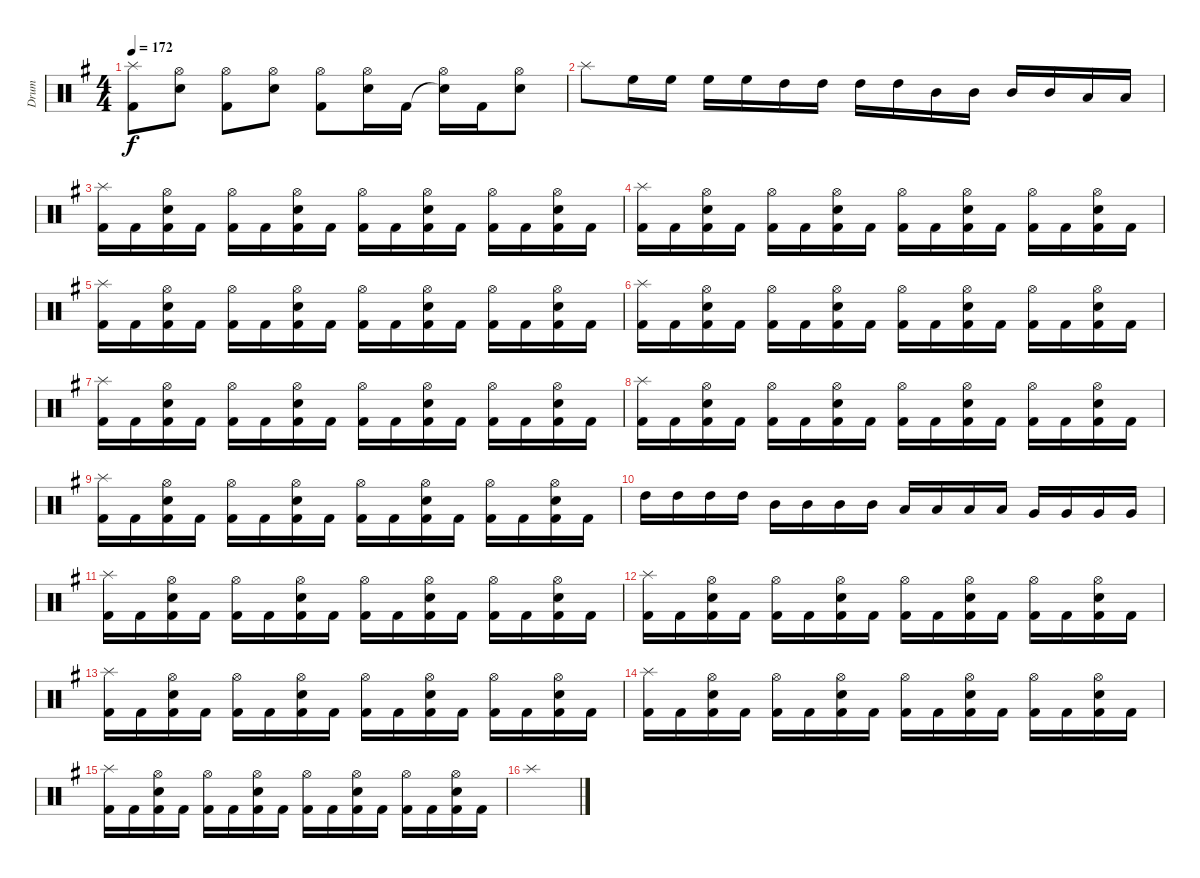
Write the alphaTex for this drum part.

\track ("Drum" "Drum") {instrument percussion}
\staff {score}
\articulation defaults
\ts (4 4)
\tempo 172
\clef neutral
\ks eminor
("Kick (hit) 2" "Splash (hit)").8{dy f} ("Electric Snare (hit)" "Hi-Hat (open)").8 ("Kick (hit) 2" "Hi-Hat (open)").8 ("Electric Snare (hit)" "Hi-Hat (open)").8 ("Kick (hit) 2" "Hi-Hat (open)").8 ("Electric Snare (hit)" "Hi-Hat (open)").16 "Kick (hit) 2".16 ("Snare (hit)"{t} "Hi-Hat (open)").16 "Kick (hit) 2".16 ("Electric Snare (hit)" "Hi-Hat (open)").8 |
"Splash (hit)".8 "High Floor Tom (hit)".16 "High Floor Tom (hit)".16 "High Floor Tom (hit)".16 "High Floor Tom (hit)".16 "High Tom (hit)".16 "High Tom (hit)".16 "High Tom (hit)".16 "High Tom (hit)".16 "Mid Tom (hit)".16 "Mid Tom (hit)".16 "Mid Tom (hit)".16 "Mid Tom (hit)".16 "Low Tom (hit)".16 "Low Tom (hit)".16 |
("Kick (hit) 2" "Splash (hit)").16 "Kick (hit) 2".16 ("Kick (hit) 2" "Hi-Hat (open)" "Electric Snare (hit)").16 "Kick (hit) 2".16 ("Kick (hit) 2" "Hi-Hat (open)").16 "Kick (hit) 2".16 ("Kick (hit) 2" "Hi-Hat (open)" "Electric Snare (hit)").16 "Kick (hit) 2".16 ("Kick (hit) 2" "Hi-Hat (open)").16 "Kick (hit) 2".16 ("Kick (hit) 2" "Hi-Hat (open)" "Electric Snare (hit)").16 "Kick (hit) 2".16 ("Kick (hit) 2" "Hi-Hat (open)").16 "Kick (hit) 2".16 ("Kick (hit) 2" "Hi-Hat (open)" "Electric Snare (hit)").16 "Kick (hit) 2".16 |
("Kick (hit) 2" "Splash (hit)").16 "Kick (hit) 2".16 ("Kick (hit) 2" "Hi-Hat (open)" "Electric Snare (hit)").16 "Kick (hit) 2".16 ("Kick (hit) 2" "Hi-Hat (open)").16 "Kick (hit) 2".16 ("Kick (hit) 2" "Hi-Hat (open)" "Electric Snare (hit)").16 "Kick (hit) 2".16 ("Kick (hit) 2" "Hi-Hat (open)").16 "Kick (hit) 2".16 ("Kick (hit) 2" "Hi-Hat (open)" "Electric Snare (hit)").16 "Kick (hit) 2".16 ("Kick (hit) 2" "Hi-Hat (open)").16 "Kick (hit) 2".16 ("Kick (hit) 2" "Hi-Hat (open)" "Electric Snare (hit)").16 "Kick (hit) 2".16 |
("Kick (hit) 2" "Splash (hit)").16 "Kick (hit) 2".16 ("Kick (hit) 2" "Hi-Hat (open)" "Electric Snare (hit)").16 "Kick (hit) 2".16 ("Kick (hit) 2" "Hi-Hat (open)").16 "Kick (hit) 2".16 ("Kick (hit) 2" "Hi-Hat (open)" "Electric Snare (hit)").16 "Kick (hit) 2".16 ("Kick (hit) 2" "Hi-Hat (open)").16 "Kick (hit) 2".16 ("Kick (hit) 2" "Hi-Hat (open)" "Electric Snare (hit)").16 "Kick (hit) 2".16 ("Kick (hit) 2" "Hi-Hat (open)").16 "Kick (hit) 2".16 ("Kick (hit) 2" "Hi-Hat (open)" "Electric Snare (hit)").16 "Kick (hit) 2".16 |
("Kick (hit) 2" "Splash (hit)").16 "Kick (hit) 2".16 ("Kick (hit) 2" "Hi-Hat (open)" "Electric Snare (hit)").16 "Kick (hit) 2".16 ("Kick (hit) 2" "Hi-Hat (open)").16 "Kick (hit) 2".16 ("Kick (hit) 2" "Hi-Hat (open)" "Electric Snare (hit)").16 "Kick (hit) 2".16 ("Kick (hit) 2" "Hi-Hat (open)").16 "Kick (hit) 2".16 ("Kick (hit) 2" "Hi-Hat (open)" "Electric Snare (hit)").16 "Kick (hit) 2".16 ("Kick (hit) 2" "Hi-Hat (open)").16 "Kick (hit) 2".16 ("Kick (hit) 2" "Hi-Hat (open)" "Electric Snare (hit)").16 "Kick (hit) 2".16 |
("Kick (hit) 2" "Splash (hit)").16 "Kick (hit) 2".16 ("Kick (hit) 2" "Hi-Hat (open)" "Electric Snare (hit)").16 "Kick (hit) 2".16 ("Kick (hit) 2" "Hi-Hat (open)").16 "Kick (hit) 2".16 ("Kick (hit) 2" "Hi-Hat (open)" "Electric Snare (hit)").16 "Kick (hit) 2".16 ("Kick (hit) 2" "Hi-Hat (open)").16 "Kick (hit) 2".16 ("Kick (hit) 2" "Hi-Hat (open)" "Electric Snare (hit)").16 "Kick (hit) 2".16 ("Kick (hit) 2" "Hi-Hat (open)").16 "Kick (hit) 2".16 ("Kick (hit) 2" "Hi-Hat (open)" "Electric Snare (hit)").16 "Kick (hit) 2".16 |
("Kick (hit) 2" "Splash (hit)").16 "Kick (hit) 2".16 ("Kick (hit) 2" "Hi-Hat (open)" "Electric Snare (hit)").16 "Kick (hit) 2".16 ("Kick (hit) 2" "Hi-Hat (open)").16 "Kick (hit) 2".16 ("Kick (hit) 2" "Hi-Hat (open)" "Electric Snare (hit)").16 "Kick (hit) 2".16 ("Kick (hit) 2" "Hi-Hat (open)").16 "Kick (hit) 2".16 ("Kick (hit) 2" "Hi-Hat (open)" "Electric Snare (hit)").16 "Kick (hit) 2".16 ("Kick (hit) 2" "Hi-Hat (open)").16 "Kick (hit) 2".16 ("Kick (hit) 2" "Hi-Hat (open)" "Electric Snare (hit)").16 "Kick (hit) 2".16 |
("Kick (hit) 2" "Splash (hit)").16 "Kick (hit) 2".16 ("Kick (hit) 2" "Hi-Hat (open)" "Electric Snare (hit)").16 "Kick (hit) 2".16 ("Kick (hit) 2" "Hi-Hat (open)").16 "Kick (hit) 2".16 ("Kick (hit) 2" "Hi-Hat (open)" "Electric Snare (hit)").16 "Kick (hit) 2".16 ("Kick (hit) 2" "Hi-Hat (open)").16 "Kick (hit) 2".16 ("Kick (hit) 2" "Hi-Hat (open)" "Electric Snare (hit)").16 "Kick (hit) 2".16 ("Kick (hit) 2" "Hi-Hat (open)").16 "Kick (hit) 2".16 ("Kick (hit) 2" "Hi-Hat (open)" "Electric Snare (hit)").16 "Kick (hit) 2".16 |
"High Tom (hit)".16 "High Tom (hit)".16 "High Tom (hit)".16 "High Tom (hit)".16 "Mid Tom (hit)".16 "Mid Tom (hit)".16 "Mid Tom (hit)".16 "Mid Tom (hit)".16 "Low Tom (hit)".16 "Low Tom (hit)".16 "Low Tom (hit)".16 "Low Tom (hit)".16 "Very Low Tom (hit)".16 "Very Low Tom (hit)".16 "Very Low Tom (hit)".16 "Very Low Tom (hit)".16 |
("Kick (hit) 2" "Splash (hit)").16 "Kick (hit) 2".16 ("Kick (hit) 2" "Hi-Hat (open)" "Electric Snare (hit)").16 "Kick (hit) 2".16 ("Kick (hit) 2" "Hi-Hat (open)").16 "Kick (hit) 2".16 ("Kick (hit) 2" "Hi-Hat (open)" "Electric Snare (hit)").16 "Kick (hit) 2".16 ("Kick (hit) 2" "Hi-Hat (open)").16 "Kick (hit) 2".16 ("Kick (hit) 2" "Hi-Hat (open)" "Electric Snare (hit)").16 "Kick (hit) 2".16 ("Kick (hit) 2" "Hi-Hat (open)").16 "Kick (hit) 2".16 ("Kick (hit) 2" "Hi-Hat (open)" "Electric Snare (hit)").16 "Kick (hit) 2".16 |
("Kick (hit) 2" "Splash (hit)").16 "Kick (hit) 2".16 ("Kick (hit) 2" "Hi-Hat (open)" "Electric Snare (hit)").16 "Kick (hit) 2".16 ("Kick (hit) 2" "Hi-Hat (open)").16 "Kick (hit) 2".16 ("Kick (hit) 2" "Hi-Hat (open)" "Electric Snare (hit)").16 "Kick (hit) 2".16 ("Kick (hit) 2" "Hi-Hat (open)").16 "Kick (hit) 2".16 ("Kick (hit) 2" "Hi-Hat (open)" "Electric Snare (hit)").16 "Kick (hit) 2".16 ("Kick (hit) 2" "Hi-Hat (open)").16 "Kick (hit) 2".16 ("Kick (hit) 2" "Hi-Hat (open)" "Electric Snare (hit)").16 "Kick (hit) 2".16 |
("Kick (hit) 2" "Splash (hit)").16 "Kick (hit) 2".16 ("Kick (hit) 2" "Hi-Hat (open)" "Electric Snare (hit)").16 "Kick (hit) 2".16 ("Kick (hit) 2" "Hi-Hat (open)").16 "Kick (hit) 2".16 ("Kick (hit) 2" "Hi-Hat (open)" "Electric Snare (hit)").16 "Kick (hit) 2".16 ("Kick (hit) 2" "Hi-Hat (open)").16 "Kick (hit) 2".16 ("Kick (hit) 2" "Hi-Hat (open)" "Electric Snare (hit)").16 "Kick (hit) 2".16 ("Kick (hit) 2" "Hi-Hat (open)").16 "Kick (hit) 2".16 ("Kick (hit) 2" "Hi-Hat (open)" "Electric Snare (hit)").16 "Kick (hit) 2".16 |
("Kick (hit) 2" "Splash (hit)").16 "Kick (hit) 2".16 ("Kick (hit) 2" "Hi-Hat (open)" "Electric Snare (hit)").16 "Kick (hit) 2".16 ("Kick (hit) 2" "Hi-Hat (open)").16 "Kick (hit) 2".16 ("Kick (hit) 2" "Hi-Hat (open)" "Electric Snare (hit)").16 "Kick (hit) 2".16 ("Kick (hit) 2" "Hi-Hat (open)").16 "Kick (hit) 2".16 ("Kick (hit) 2" "Hi-Hat (open)" "Electric Snare (hit)").16 "Kick (hit) 2".16 ("Kick (hit) 2" "Hi-Hat (open)").16 "Kick (hit) 2".16 ("Kick (hit) 2" "Hi-Hat (open)" "Electric Snare (hit)").16 "Kick (hit) 2".16 |
("Kick (hit) 2" "Splash (hit)").16 "Kick (hit) 2".16 ("Kick (hit) 2" "Hi-Hat (open)" "Electric Snare (hit)").16 "Kick (hit) 2".16 ("Kick (hit) 2" "Hi-Hat (open)").16 "Kick (hit) 2".16 ("Kick (hit) 2" "Hi-Hat (open)" "Electric Snare (hit)").16 "Kick (hit) 2".16 ("Kick (hit) 2" "Hi-Hat (open)").16 "Kick (hit) 2".16 ("Kick (hit) 2" "Hi-Hat (open)" "Electric Snare (hit)").16 "Kick (hit) 2".16 ("Kick (hit) 2" "Hi-Hat (open)").16 "Kick (hit) 2".16 ("Kick (hit) 2" "Hi-Hat (open)" "Electric Snare (hit)").16 "Kick (hit) 2".16 |
"Splash (hit)".1
